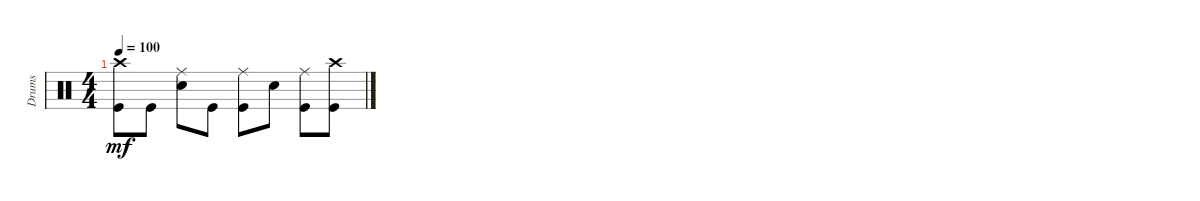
\track ("Drums" "Drums") {instrument percussion}
\staff {score}
\articulation defaults
\ts (4 4)
\tempo 100
\clef neutral
\ks c
("Crash high (hit)" "Kick (hit)").8{dy mf} "Kick (hit)".8 ("Ride (middle)" "Snare (hit) 2").8 "Kick (hit)".8 ("Ride (middle)" "Kick (hit)").8 "Snare (hit) 2".8 ("Ride (middle)" "Kick (hit)").8 ("Crash high (hit)" "Kick (hit)").8
